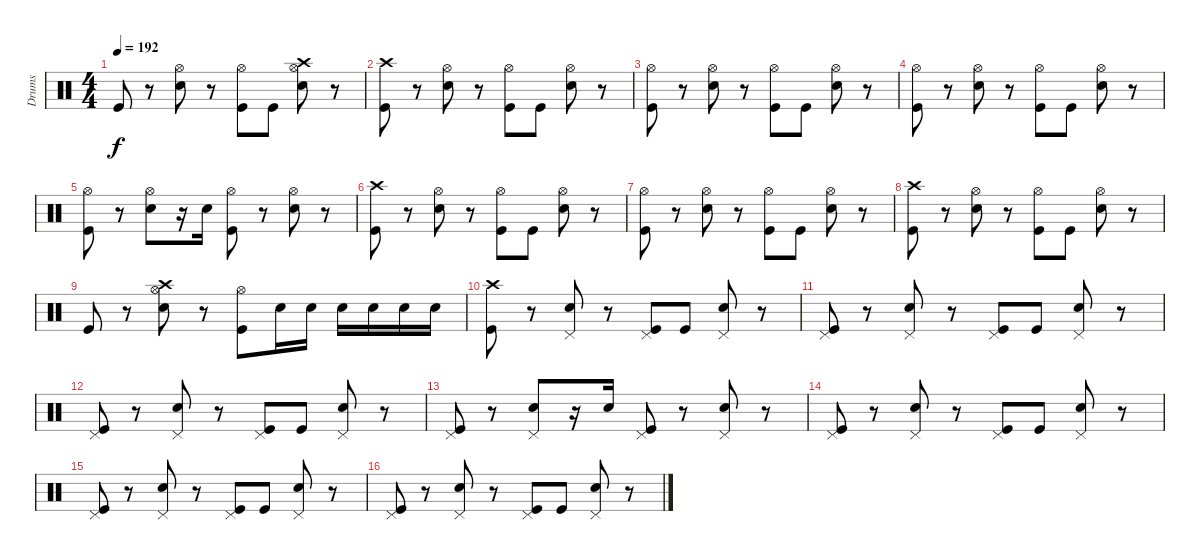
\track ("Drums" "Drums") {instrument percussion}
\staff {score}
\articulation defaults
\ts (4 4)
\tempo 192
\clef neutral
\ks c "Kick (hit)".8{dy f}
r.8 ("Electric Snare (hit)" "Hi-Hat (open)").8 r.8 ("Kick (hit)" "Hi-Hat (open)").8 "Kick (hit)".8 ("Electric Snare (hit)" "Hi-Hat (open)" "Crash high (hit)").8 r.8 |
("Kick (hit)" "Crash high (hit)").8 r.8 ("Electric Snare (hit)" "Hi-Hat (open)").8 r.8 ("Kick (hit)" "Hi-Hat (open)").8 "Kick (hit)".8 ("Electric Snare (hit)" "Hi-Hat (open)").8 r.8 |
("Kick (hit)" "Hi-Hat (open)").8 r.8 ("Electric Snare (hit)" "Hi-Hat (open)").8 r.8 ("Kick (hit)" "Hi-Hat (open)").8 "Kick (hit)".8 ("Electric Snare (hit)" "Hi-Hat (open)").8 r.8 |
("Kick (hit)" "Hi-Hat (open)").8 r.8 ("Electric Snare (hit)" "Hi-Hat (open)").8 r.8 ("Kick (hit)" "Hi-Hat (open)").8 "Kick (hit)".8 ("Electric Snare (hit)" "Hi-Hat (open)").8 r.8 |
("Kick (hit)" "Hi-Hat (open)").8 r.8 ("Electric Snare (hit)" "Hi-Hat (open)").8 r.16 "Electric Snare (hit)".16 ("Kick (hit)" "Hi-Hat (open)").8 r.8 ("Electric Snare (hit)" "Hi-Hat (open)").8 r.8 |
("Kick (hit)" "Crash high (hit)").8 r.8 ("Electric Snare (hit)" "Hi-Hat (open)").8 r.8 ("Kick (hit)" "Hi-Hat (open)").8 "Kick (hit)".8 ("Electric Snare (hit)" "Hi-Hat (open)").8 r.8 |
("Kick (hit)" "Hi-Hat (open)").8 r.8 ("Electric Snare (hit)" "Hi-Hat (open)").8 r.8 ("Kick (hit)" "Hi-Hat (open)").8 "Kick (hit)".8 ("Electric Snare (hit)" "Hi-Hat (open)").8 r.8 |
("Kick (hit)" "Crash high (hit)").8 r.8 ("Electric Snare (hit)" "Hi-Hat (open)").8 r.8 ("Kick (hit)" "Hi-Hat (open)").8 "Kick (hit)".8 ("Electric Snare (hit)" "Hi-Hat (open)").8 r.8 |
"Kick (hit)".8 r.8 ("Electric Snare (hit)" "Hi-Hat (open)" "Crash high (hit)").8 r.8 ("Kick (hit)" "Hi-Hat (open)").8 "Electric Snare (hit)".16 "Electric Snare (hit)".16 "Electric Snare (hit)".16 "Electric Snare (hit)".16 "Electric Snare (hit)".16 "Electric Snare (hit)".16 |
("Kick (hit)" "Crash high (hit)").8 r.8 ("Electric Snare (hit)" "Pedal Hi-Hat (hit)").8 r.8 ("Kick (hit)" "Pedal Hi-Hat (hit)").8 "Kick (hit)".8 ("Electric Snare (hit)" "Pedal Hi-Hat (hit)").8 r.8 |
("Kick (hit)" "Pedal Hi-Hat (hit)").8 r.8 ("Electric Snare (hit)" "Pedal Hi-Hat (hit)").8 r.8 ("Kick (hit)" "Pedal Hi-Hat (hit)").8 "Kick (hit)".8 ("Electric Snare (hit)" "Pedal Hi-Hat (hit)").8 r.8 |
("Kick (hit)" "Pedal Hi-Hat (hit)").8 r.8 ("Electric Snare (hit)" "Pedal Hi-Hat (hit)").8 r.8 ("Kick (hit)" "Pedal Hi-Hat (hit)").8 "Kick (hit)".8 ("Electric Snare (hit)" "Pedal Hi-Hat (hit)").8 r.8 |
("Kick (hit)" "Pedal Hi-Hat (hit)").8 r.8 ("Electric Snare (hit)" "Pedal Hi-Hat (hit)").8 r.16 "Electric Snare (hit)".16 ("Kick (hit)" "Pedal Hi-Hat (hit)").8 r.8 ("Electric Snare (hit)" "Pedal Hi-Hat (hit)").8 r.8 |
("Kick (hit)" "Pedal Hi-Hat (hit)").8 r.8 ("Electric Snare (hit)" "Pedal Hi-Hat (hit)").8 r.8 ("Kick (hit)" "Pedal Hi-Hat (hit)").8 "Kick (hit)".8 ("Electric Snare (hit)" "Pedal Hi-Hat (hit)").8 r.8 |
("Kick (hit)" "Pedal Hi-Hat (hit)").8 r.8 ("Electric Snare (hit)" "Pedal Hi-Hat (hit)").8 r.8 ("Kick (hit)" "Pedal Hi-Hat (hit)").8 "Kick (hit)".8 ("Electric Snare (hit)" "Pedal Hi-Hat (hit)").8 r.8 |
("Kick (hit)" "Pedal Hi-Hat (hit)").8 r.8 ("Electric Snare (hit)" "Pedal Hi-Hat (hit)").8 r.8 ("Kick (hit)" "Pedal Hi-Hat (hit)").8 "Kick (hit)".8 ("Electric Snare (hit)" "Pedal Hi-Hat (hit)").8 r.8
